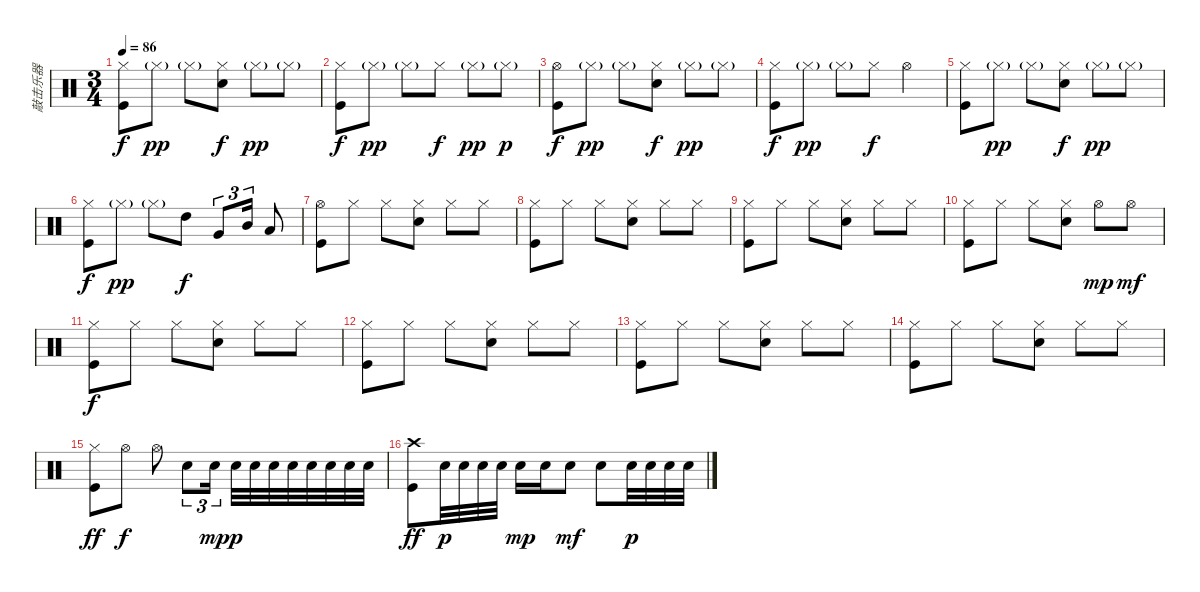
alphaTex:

\track ("敲击乐器" "敲击乐器") {instrument percussion}
\staff {score}
\articulation defaults
\ts (3 4)
\tempo 86
\clef neutral
\ks c
("Hi-Hat (closed)" "Kick (hit)").8{dy f} "Hi-Hat (closed)"{g}.8{dy pp} "Hi-Hat (closed)"{g}.8 ("Hi-Hat (closed)" "Snare (hit) 2").8{dy f} "Hi-Hat (closed)"{g}.8{dy pp} "Hi-Hat (closed)"{g}.8 |
("Hi-Hat (closed)" "Kick (hit)").8{dy f} "Hi-Hat (closed)"{g}.8{dy pp} "Hi-Hat (closed)"{g}.8 "Hi-Hat (closed)".8{dy f} "Hi-Hat (closed)"{g}.8{dy pp} "Hi-Hat (closed)"{g}.8{dy p} |
("Hi-Hat (open)" "Kick (hit)").8{dy f} "Hi-Hat (closed)"{g}.8{dy pp} "Hi-Hat (closed)"{g}.8 ("Hi-Hat (closed)" "Snare (hit) 2").8{dy f} "Hi-Hat (closed)"{g}.8{dy pp} "Hi-Hat (closed)"{g}.8 |
("Hi-Hat (closed)" "Kick (hit)").8{dy f} "Hi-Hat (closed)"{g}.8{dy pp} "Hi-Hat (closed)"{g}.8 "Hi-Hat (closed)".8{dy f} "Hi-Hat (open)".4 |
("Hi-Hat (closed)" "Kick (hit)").8 "Hi-Hat (closed)"{g}.8{dy pp} "Hi-Hat (closed)"{g}.8 ("Hi-Hat (closed)" "Snare (hit) 2").8{dy f} "Hi-Hat (closed)"{g}.8{dy pp} "Hi-Hat (closed)"{g}.8 |
("Hi-Hat (closed)" "Kick (hit)").8{dy f} "Hi-Hat (closed)"{g}.8{dy pp} "Hi-Hat (closed)"{g}.8 "High Tom (hit)".8{dy f} "Very Low Tom (hit)".8{tu (3 2)} "Mid Tom (hit)".16{tu (3 2)} "Low Tom (hit)".8 |
("Hi-Hat (open)" "Kick (hit)").8 "Hi-Hat (closed)".8 "Hi-Hat (closed)".8 ("Hi-Hat (closed)" "Snare (hit) 2").8 "Hi-Hat (closed)".8 "Hi-Hat (closed)".8 |
("Hi-Hat (closed)" "Kick (hit)").8 "Hi-Hat (closed)".8 "Hi-Hat (closed)".8 ("Hi-Hat (closed)" "Snare (hit) 2").8 "Hi-Hat (closed)".8 "Hi-Hat (closed)".8 |
("Hi-Hat (closed)" "Kick (hit)").8 "Hi-Hat (closed)".8 "Hi-Hat (closed)".8 ("Hi-Hat (closed)" "Snare (hit) 2").8 "Hi-Hat (closed)".8 "Hi-Hat (closed)".8 |
("Hi-Hat (closed)" "Kick (hit)").8 "Hi-Hat (closed)".8 "Hi-Hat (closed)".8 ("Hi-Hat (closed)" "Snare (hit) 2").8 "Hi-Hat (open)".8{dy mp} "Hi-Hat (open)".8{dy mf} |
("Hi-Hat (closed)" "Kick (hit)").8{dy f} "Hi-Hat (closed)".8 "Hi-Hat (closed)".8 ("Hi-Hat (closed)" "Snare (hit) 2").8 "Hi-Hat (closed)".8 "Hi-Hat (closed)".8 |
("Hi-Hat (closed)" "Kick (hit)").8 "Hi-Hat (closed)".8 "Hi-Hat (closed)".8 ("Hi-Hat (closed)" "Snare (hit) 2").8 "Hi-Hat (closed)".8 "Hi-Hat (closed)".8 |
("Hi-Hat (closed)" "Kick (hit)").8 "Hi-Hat (closed)".8 "Hi-Hat (closed)".8 ("Hi-Hat (closed)" "Snare (hit) 2").8 "Hi-Hat (closed)".8 "Hi-Hat (closed)".8 |
("Hi-Hat (closed)" "Kick (hit)").8 "Hi-Hat (closed)".8 "Hi-Hat (closed)".8 ("Hi-Hat (closed)" "Snare (hit) 2").8 "Hi-Hat (closed)".8 "Hi-Hat (closed)".8 |
("Hi-Hat (closed)" "Kick (hit)").8{dy ff} "Hi-Hat (open)".8{dy f} "Hi-Hat (open)".8 "Snare (hit) 2".8{tu (3 2)} "Snare (hit) 2".16{tu (3 2) dy mp} "Snare (hit) 2".32{dy p} "Snare (hit) 2".32 "Snare (hit) 2".32 "Snare (hit) 2".32 "Snare (hit) 2".32 "Snare (hit) 2".32 "Snare (hit) 2".32 "Snare (hit) 2".32 |
("Crash high (hit)" "Kick (hit)").8{dy ff} "Snare (hit) 2".32{dy p} "Snare (hit) 2".32 "Snare (hit) 2".32 "Snare (hit) 2".32 "Snare (hit) 2".16{dy mp} "Snare (hit) 2".16 "Snare (hit) 2".8{dy mf} "Snare (hit) 2".8 "Snare (hit) 2".32{dy p} "Snare (hit) 2".32 "Snare (hit) 2".32 "Snare (hit) 2".32
